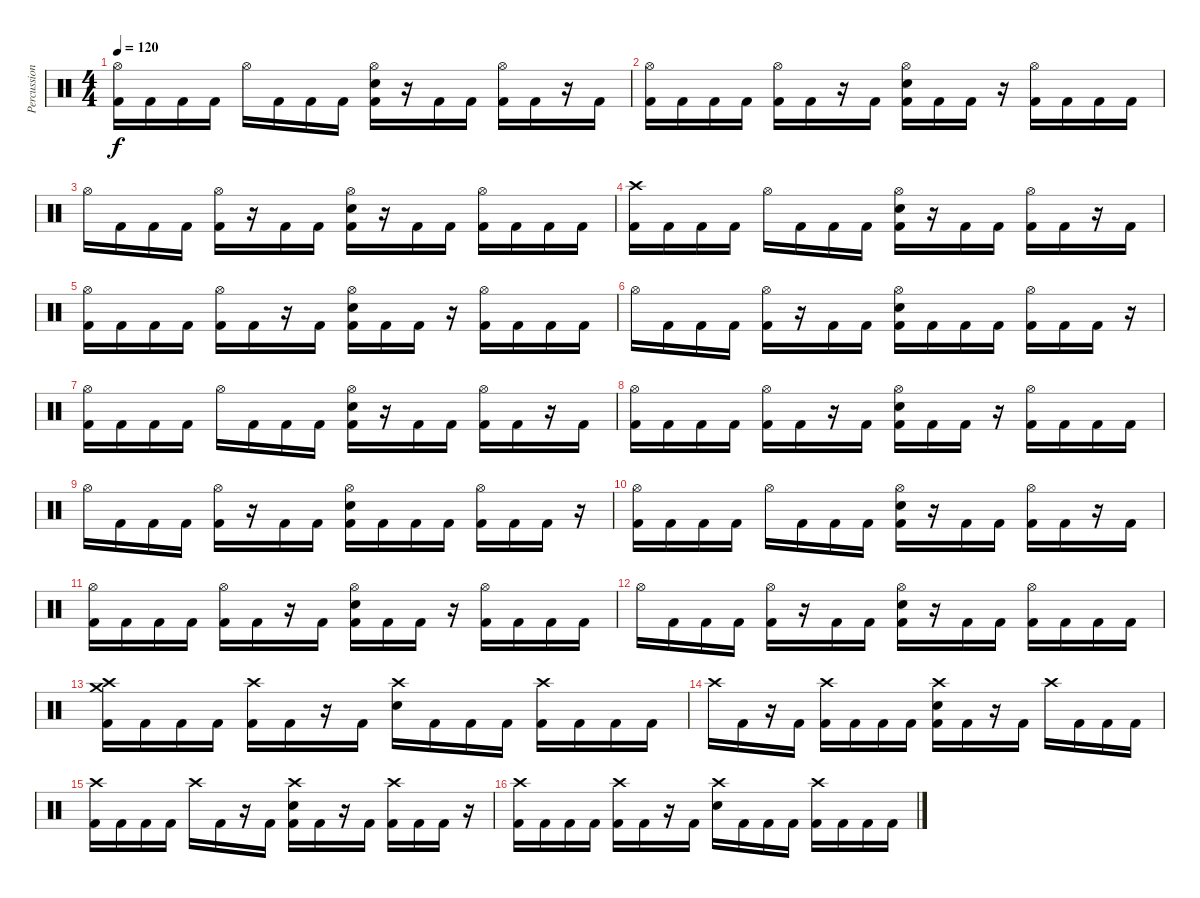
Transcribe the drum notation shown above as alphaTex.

\track ("Percussion" "Percussion") {instrument percussion}
\staff {score}
\articulation defaults
\ts (4 4)
\tempo 120
\clef neutral
\ks c
("Hi-Hat (open)" "Kick (hit) 2").16{dy f} "Kick (hit) 2".16 "Kick (hit) 2".16 "Kick (hit) 2".16 "Hi-Hat (open)".16 "Kick (hit) 2".16 "Kick (hit) 2".16 "Kick (hit) 2".16 ("Hi-Hat (open)" "Electric Snare (hit)" "Kick (hit) 2").16 r.16 "Kick (hit) 2".16 "Kick (hit) 2".16 ("Hi-Hat (open)" "Kick (hit) 2").16 "Kick (hit) 2".16 r.16 "Kick (hit) 2".16 |
("Hi-Hat (open)" "Kick (hit) 2").16 "Kick (hit) 2".16 "Kick (hit) 2".16 "Kick (hit) 2".16 ("Hi-Hat (open)" "Kick (hit) 2").16 "Kick (hit) 2".16 r.16 "Kick (hit) 2".16 ("Hi-Hat (open)" "Electric Snare (hit)" "Kick (hit) 2").16 "Kick (hit) 2".16 "Kick (hit) 2".16 r.16 ("Hi-Hat (open)" "Kick (hit) 2").16 "Kick (hit) 2".16 "Kick (hit) 2".16 "Kick (hit) 2".16 |
"Hi-Hat (open)".16 "Kick (hit) 2".16 "Kick (hit) 2".16 "Kick (hit) 2".16 ("Hi-Hat (open)" "Kick (hit) 2").16 r.16 "Kick (hit) 2".16 "Kick (hit) 2".16 ("Hi-Hat (open)" "Electric Snare (hit)" "Kick (hit) 2").16 r.16 "Kick (hit) 2".16 "Kick (hit) 2".16 ("Hi-Hat (open)" "Kick (hit) 2").16 "Kick (hit) 2".16 "Kick (hit) 2".16 "Kick (hit) 2".16 |
("Crash high (hit)" "Kick (hit) 2").16 "Kick (hit) 2".16 "Kick (hit) 2".16 "Kick (hit) 2".16 "Hi-Hat (open)".16 "Kick (hit) 2".16 "Kick (hit) 2".16 "Kick (hit) 2".16 ("Hi-Hat (open)" "Electric Snare (hit)" "Kick (hit) 2").16 r.16 "Kick (hit) 2".16 "Kick (hit) 2".16 ("Hi-Hat (open)" "Kick (hit) 2").16 "Kick (hit) 2".16 r.16 "Kick (hit) 2".16 |
("Hi-Hat (open)" "Kick (hit) 2").16 "Kick (hit) 2".16 "Kick (hit) 2".16 "Kick (hit) 2".16 ("Hi-Hat (open)" "Kick (hit) 2").16 "Kick (hit) 2".16 r.16 "Kick (hit) 2".16 ("Hi-Hat (open)" "Electric Snare (hit)" "Kick (hit) 2").16 "Kick (hit) 2".16 "Kick (hit) 2".16 r.16 ("Hi-Hat (open)" "Kick (hit) 2").16 "Kick (hit) 2".16 "Kick (hit) 2".16 "Kick (hit) 2".16 |
"Hi-Hat (open)".16 "Kick (hit) 2".16 "Kick (hit) 2".16 "Kick (hit) 2".16 ("Hi-Hat (open)" "Kick (hit) 2").16 r.16 "Kick (hit) 2".16 "Kick (hit) 2".16 ("Hi-Hat (open)" "Electric Snare (hit)" "Kick (hit) 2").16 "Kick (hit) 2".16 "Kick (hit) 2".16 "Kick (hit) 2".16 ("Hi-Hat (open)" "Kick (hit) 2").16 "Kick (hit) 2".16 "Kick (hit) 2".16 r.16 |
("Hi-Hat (open)" "Kick (hit) 2").16 "Kick (hit) 2".16 "Kick (hit) 2".16 "Kick (hit) 2".16 "Hi-Hat (open)".16 "Kick (hit) 2".16 "Kick (hit) 2".16 "Kick (hit) 2".16 ("Hi-Hat (open)" "Electric Snare (hit)" "Kick (hit) 2").16 r.16 "Kick (hit) 2".16 "Kick (hit) 2".16 ("Hi-Hat (open)" "Kick (hit) 2").16 "Kick (hit) 2".16 r.16 "Kick (hit) 2".16 |
("Hi-Hat (open)" "Kick (hit) 2").16 "Kick (hit) 2".16 "Kick (hit) 2".16 "Kick (hit) 2".16 ("Hi-Hat (open)" "Kick (hit) 2").16 "Kick (hit) 2".16 r.16 "Kick (hit) 2".16 ("Hi-Hat (open)" "Electric Snare (hit)" "Kick (hit) 2").16 "Kick (hit) 2".16 "Kick (hit) 2".16 r.16 ("Hi-Hat (open)" "Kick (hit) 2").16 "Kick (hit) 2".16 "Kick (hit) 2".16 "Kick (hit) 2".16 |
"Hi-Hat (open)".16 "Kick (hit) 2".16 "Kick (hit) 2".16 "Kick (hit) 2".16 ("Hi-Hat (open)" "Kick (hit) 2").16 r.16 "Kick (hit) 2".16 "Kick (hit) 2".16 ("Hi-Hat (open)" "Electric Snare (hit)" "Kick (hit) 2").16 "Kick (hit) 2".16 "Kick (hit) 2".16 "Kick (hit) 2".16 ("Hi-Hat (open)" "Kick (hit) 2").16 "Kick (hit) 2".16 "Kick (hit) 2".16 r.16 |
("Hi-Hat (open)" "Kick (hit) 2").16 "Kick (hit) 2".16 "Kick (hit) 2".16 "Kick (hit) 2".16 "Hi-Hat (open)".16 "Kick (hit) 2".16 "Kick (hit) 2".16 "Kick (hit) 2".16 ("Hi-Hat (open)" "Electric Snare (hit)" "Kick (hit) 2").16 r.16 "Kick (hit) 2".16 "Kick (hit) 2".16 ("Hi-Hat (open)" "Kick (hit) 2").16 "Kick (hit) 2".16 r.16 "Kick (hit) 2".16 |
("Hi-Hat (open)" "Kick (hit) 2").16 "Kick (hit) 2".16 "Kick (hit) 2".16 "Kick (hit) 2".16 ("Hi-Hat (open)" "Kick (hit) 2").16 "Kick (hit) 2".16 r.16 "Kick (hit) 2".16 ("Hi-Hat (open)" "Electric Snare (hit)" "Kick (hit) 2").16 "Kick (hit) 2".16 "Kick (hit) 2".16 r.16 ("Hi-Hat (open)" "Kick (hit) 2").16 "Kick (hit) 2".16 "Kick (hit) 2".16 "Kick (hit) 2".16 |
"Hi-Hat (open)".16 "Kick (hit) 2".16 "Kick (hit) 2".16 "Kick (hit) 2".16 ("Hi-Hat (open)" "Kick (hit) 2").16 r.16 "Kick (hit) 2".16 "Kick (hit) 2".16 ("Hi-Hat (open)" "Electric Snare (hit)" "Kick (hit) 2").16 r.16 "Kick (hit) 2".16 "Kick (hit) 2".16 ("Hi-Hat (open)" "Kick (hit) 2").16 "Kick (hit) 2".16 "Kick (hit) 2".16 "Kick (hit) 2".16 |
("Crash high (hit)" "Crash medium (hit)" "Kick (hit) 2").16 "Kick (hit) 2".16 "Kick (hit) 2".16 "Kick (hit) 2".16 ("Crash high (hit)" "Kick (hit) 2").16 "Kick (hit) 2".16 r.16 "Kick (hit) 2".16 ("Crash high (hit)" "Electric Snare (hit)").16 "Kick (hit) 2".16 "Kick (hit) 2".16 "Kick (hit) 2".16 ("Crash high (hit)" "Kick (hit) 2").16 "Kick (hit) 2".16 "Kick (hit) 2".16 "Kick (hit) 2".16 |
"Crash high (hit)".16 "Kick (hit) 2".16 r.16 "Kick (hit) 2".16 ("Crash high (hit)" "Kick (hit) 2").16 "Kick (hit) 2".16 "Kick (hit) 2".16 "Kick (hit) 2".16 ("Crash high (hit)" "Electric Snare (hit)" "Kick (hit) 2").16 "Kick (hit) 2".16 r.16 "Kick (hit) 2".16 "Crash high (hit)".16 "Kick (hit) 2".16 "Kick (hit) 2".16 "Kick (hit) 2".16 |
("Crash high (hit)" "Kick (hit) 2").16 "Kick (hit) 2".16 "Kick (hit) 2".16 "Kick (hit) 2".16 "Crash high (hit)".16 "Kick (hit) 2".16 r.16 "Kick (hit) 2".16 ("Crash high (hit)" "Electric Snare (hit)" "Kick (hit) 2").16 "Kick (hit) 2".16 r.16 "Kick (hit) 2".16 ("Crash high (hit)" "Kick (hit) 2").16 "Kick (hit) 2".16 "Kick (hit) 2".16 r.16 |
("Crash high (hit)" "Kick (hit) 2").16 "Kick (hit) 2".16 "Kick (hit) 2".16 "Kick (hit) 2".16 ("Crash high (hit)" "Kick (hit) 2").16 "Kick (hit) 2".16 r.16 "Kick (hit) 2".16 ("Crash high (hit)" "Electric Snare (hit)").16 "Kick (hit) 2".16 "Kick (hit) 2".16 "Kick (hit) 2".16 ("Crash high (hit)" "Kick (hit) 2").16 "Kick (hit) 2".16 "Kick (hit) 2".16 "Kick (hit) 2".16
